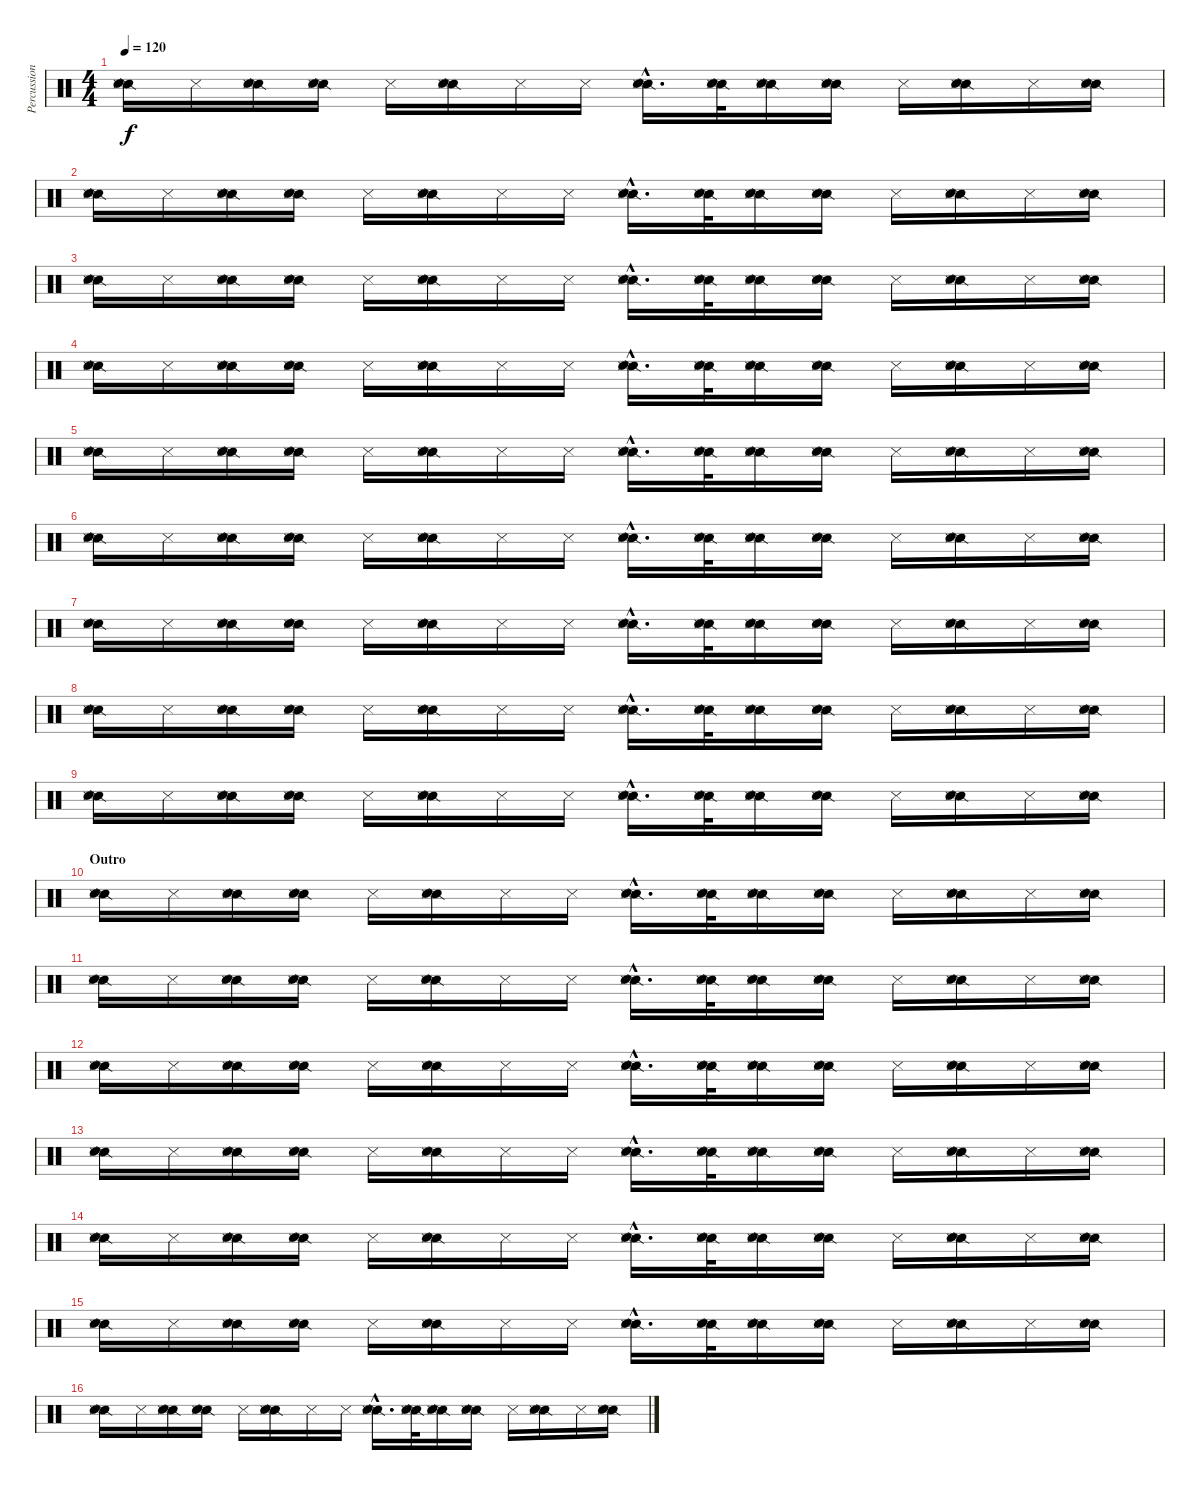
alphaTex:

\track ("Percussion" "Percussion") {instrument percussion}
\staff {score}
\articulation defaults
\ts (4 4)
\tempo 120
\clef neutral
\ks c
("Snare (side stick) 2" "Snare (hit) 2" "Metronome (hit)"{x}).16{dy f} "Metronome (hit)"{x}.16 ("Snare (side stick) 2" "Snare (hit) 2" "Metronome (hit)"{x}).16 ("Snare (side stick) 2" "Snare (hit) 2" "Metronome (hit)"{x}).16 "Metronome (hit)"{x}.16 ("Snare (side stick) 2" "Snare (hit) 2" "Metronome (hit)"{x}).16 "Metronome (hit)"{x}.16 "Metronome (hit)"{x}.16 ("Snare (side stick) 2"{hac} "Snare (hit) 2"{hac} "Metronome (hit)"{hac x}).16{d} ("Snare (side stick) 2" "Snare (hit) 2" "Metronome (hit)"{x}).32 ("Snare (side stick) 2" "Snare (hit) 2" "Metronome (hit)"{x}).16 ("Snare (side stick) 2" "Snare (hit) 2" "Metronome (hit)"{x}).16 "Metronome (hit)"{x}.16 ("Snare (side stick) 2" "Snare (hit) 2" "Metronome (hit)"{x}).16 "Metronome (hit)"{x}.16 ("Snare (side stick) 2" "Snare (hit) 2" "Metronome (hit)"{x}).16 |
("Snare (side stick) 2" "Snare (hit) 2" "Metronome (hit)"{x}).16 "Metronome (hit)"{x}.16 ("Snare (side stick) 2" "Snare (hit) 2" "Metronome (hit)"{x}).16 ("Snare (side stick) 2" "Snare (hit) 2" "Metronome (hit)"{x}).16 "Metronome (hit)"{x}.16 ("Snare (side stick) 2" "Snare (hit) 2" "Metronome (hit)"{x}).16 "Metronome (hit)"{x}.16 "Metronome (hit)"{x}.16 ("Snare (side stick) 2"{hac} "Snare (hit) 2"{hac} "Metronome (hit)"{hac x}).16{d} ("Snare (side stick) 2" "Snare (hit) 2" "Metronome (hit)"{x}).32 ("Snare (side stick) 2" "Snare (hit) 2" "Metronome (hit)"{x}).16 ("Snare (side stick) 2" "Snare (hit) 2" "Metronome (hit)"{x}).16 "Metronome (hit)"{x}.16 ("Snare (side stick) 2" "Snare (hit) 2" "Metronome (hit)"{x}).16 "Metronome (hit)"{x}.16 ("Snare (side stick) 2" "Snare (hit) 2" "Metronome (hit)"{x}).16 |
("Snare (side stick) 2" "Snare (hit) 2" "Metronome (hit)"{x}).16 "Metronome (hit)"{x}.16 ("Snare (side stick) 2" "Snare (hit) 2" "Metronome (hit)"{x}).16 ("Snare (side stick) 2" "Snare (hit) 2" "Metronome (hit)"{x}).16 "Metronome (hit)"{x}.16 ("Snare (side stick) 2" "Snare (hit) 2" "Metronome (hit)"{x}).16 "Metronome (hit)"{x}.16 "Metronome (hit)"{x}.16 ("Snare (side stick) 2"{hac} "Snare (hit) 2"{hac} "Metronome (hit)"{hac x}).16{d} ("Snare (side stick) 2" "Snare (hit) 2" "Metronome (hit)"{x}).32 ("Snare (side stick) 2" "Snare (hit) 2" "Metronome (hit)"{x}).16 ("Snare (side stick) 2" "Snare (hit) 2" "Metronome (hit)"{x}).16 "Metronome (hit)"{x}.16 ("Snare (side stick) 2" "Snare (hit) 2" "Metronome (hit)"{x}).16 "Metronome (hit)"{x}.16 ("Snare (side stick) 2" "Snare (hit) 2" "Metronome (hit)"{x}).16 |
("Snare (side stick) 2" "Snare (hit) 2" "Metronome (hit)"{x}).16 "Metronome (hit)"{x}.16 ("Snare (side stick) 2" "Snare (hit) 2" "Metronome (hit)"{x}).16 ("Snare (side stick) 2" "Snare (hit) 2" "Metronome (hit)"{x}).16 "Metronome (hit)"{x}.16 ("Snare (side stick) 2" "Snare (hit) 2" "Metronome (hit)"{x}).16 "Metronome (hit)"{x}.16 "Metronome (hit)"{x}.16 ("Snare (side stick) 2"{hac} "Snare (hit) 2"{hac} "Metronome (hit)"{hac x}).16{d} ("Snare (side stick) 2" "Snare (hit) 2" "Metronome (hit)"{x}).32 ("Snare (side stick) 2" "Snare (hit) 2" "Metronome (hit)"{x}).16 ("Snare (side stick) 2" "Snare (hit) 2" "Metronome (hit)"{x}).16 "Metronome (hit)"{x}.16 ("Snare (side stick) 2" "Snare (hit) 2" "Metronome (hit)"{x}).16 "Metronome (hit)"{x}.16 ("Snare (side stick) 2" "Snare (hit) 2" "Metronome (hit)"{x}).16 |
("Snare (side stick) 2" "Snare (hit) 2" "Metronome (hit)"{x}).16 "Metronome (hit)"{x}.16 ("Snare (side stick) 2" "Snare (hit) 2" "Metronome (hit)"{x}).16 ("Snare (side stick) 2" "Snare (hit) 2" "Metronome (hit)"{x}).16 "Metronome (hit)"{x}.16 ("Snare (side stick) 2" "Snare (hit) 2" "Metronome (hit)"{x}).16 "Metronome (hit)"{x}.16 "Metronome (hit)"{x}.16 ("Snare (side stick) 2"{hac} "Snare (hit) 2"{hac} "Metronome (hit)"{hac x}).16{d} ("Snare (side stick) 2" "Snare (hit) 2" "Metronome (hit)"{x}).32 ("Snare (side stick) 2" "Snare (hit) 2" "Metronome (hit)"{x}).16 ("Snare (side stick) 2" "Snare (hit) 2" "Metronome (hit)"{x}).16 "Metronome (hit)"{x}.16 ("Snare (side stick) 2" "Snare (hit) 2" "Metronome (hit)"{x}).16 "Metronome (hit)"{x}.16 ("Snare (side stick) 2" "Snare (hit) 2" "Metronome (hit)"{x}).16 |
("Snare (side stick) 2" "Snare (hit) 2" "Metronome (hit)"{x}).16 "Metronome (hit)"{x}.16 ("Snare (side stick) 2" "Snare (hit) 2" "Metronome (hit)"{x}).16 ("Snare (side stick) 2" "Snare (hit) 2" "Metronome (hit)"{x}).16 "Metronome (hit)"{x}.16 ("Snare (side stick) 2" "Snare (hit) 2" "Metronome (hit)"{x}).16 "Metronome (hit)"{x}.16 "Metronome (hit)"{x}.16 ("Snare (side stick) 2"{hac} "Snare (hit) 2"{hac} "Metronome (hit)"{hac x}).16{d} ("Snare (side stick) 2" "Snare (hit) 2" "Metronome (hit)"{x}).32 ("Snare (side stick) 2" "Snare (hit) 2" "Metronome (hit)"{x}).16 ("Snare (side stick) 2" "Snare (hit) 2" "Metronome (hit)"{x}).16 "Metronome (hit)"{x}.16 ("Snare (side stick) 2" "Snare (hit) 2" "Metronome (hit)"{x}).16 "Metronome (hit)"{x}.16 ("Snare (side stick) 2" "Snare (hit) 2" "Metronome (hit)"{x}).16 |
("Snare (side stick) 2" "Snare (hit) 2" "Metronome (hit)"{x}).16 "Metronome (hit)"{x}.16 ("Snare (side stick) 2" "Snare (hit) 2" "Metronome (hit)"{x}).16 ("Snare (side stick) 2" "Snare (hit) 2" "Metronome (hit)"{x}).16 "Metronome (hit)"{x}.16 ("Snare (side stick) 2" "Snare (hit) 2" "Metronome (hit)"{x}).16 "Metronome (hit)"{x}.16 "Metronome (hit)"{x}.16 ("Snare (side stick) 2"{hac} "Snare (hit) 2"{hac} "Metronome (hit)"{hac x}).16{d} ("Snare (side stick) 2" "Snare (hit) 2" "Metronome (hit)"{x}).32 ("Snare (side stick) 2" "Snare (hit) 2" "Metronome (hit)"{x}).16 ("Snare (side stick) 2" "Snare (hit) 2" "Metronome (hit)"{x}).16 "Metronome (hit)"{x}.16 ("Snare (side stick) 2" "Snare (hit) 2" "Metronome (hit)"{x}).16 "Metronome (hit)"{x}.16 ("Snare (side stick) 2" "Snare (hit) 2" "Metronome (hit)"{x}).16 |
("Snare (side stick) 2" "Snare (hit) 2" "Metronome (hit)"{x}).16 "Metronome (hit)"{x}.16 ("Snare (side stick) 2" "Snare (hit) 2" "Metronome (hit)"{x}).16 ("Snare (side stick) 2" "Snare (hit) 2" "Metronome (hit)"{x}).16 "Metronome (hit)"{x}.16 ("Snare (side stick) 2" "Snare (hit) 2" "Metronome (hit)"{x}).16 "Metronome (hit)"{x}.16 "Metronome (hit)"{x}.16 ("Snare (side stick) 2"{hac} "Snare (hit) 2"{hac} "Metronome (hit)"{hac x}).16{d} ("Snare (side stick) 2" "Snare (hit) 2" "Metronome (hit)"{x}).32 ("Snare (side stick) 2" "Snare (hit) 2" "Metronome (hit)"{x}).16 ("Snare (side stick) 2" "Snare (hit) 2" "Metronome (hit)"{x}).16 "Metronome (hit)"{x}.16 ("Snare (side stick) 2" "Snare (hit) 2" "Metronome (hit)"{x}).16 "Metronome (hit)"{x}.16 ("Snare (side stick) 2" "Snare (hit) 2" "Metronome (hit)"{x}).16 |
("Snare (side stick) 2" "Snare (hit) 2" "Metronome (hit)"{x}).16 "Metronome (hit)"{x}.16 ("Snare (side stick) 2" "Snare (hit) 2" "Metronome (hit)"{x}).16 ("Snare (side stick) 2" "Snare (hit) 2" "Metronome (hit)"{x}).16 "Metronome (hit)"{x}.16 ("Snare (side stick) 2" "Snare (hit) 2" "Metronome (hit)"{x}).16 "Metronome (hit)"{x}.16 "Metronome (hit)"{x}.16 ("Snare (side stick) 2"{hac} "Snare (hit) 2"{hac} "Metronome (hit)"{hac x}).16{d} ("Snare (side stick) 2" "Snare (hit) 2" "Metronome (hit)"{x}).32 ("Snare (side stick) 2" "Snare (hit) 2" "Metronome (hit)"{x}).16 ("Snare (side stick) 2" "Snare (hit) 2" "Metronome (hit)"{x}).16 "Metronome (hit)"{x}.16 ("Snare (side stick) 2" "Snare (hit) 2" "Metronome (hit)"{x}).16 "Metronome (hit)"{x}.16 ("Snare (side stick) 2" "Snare (hit) 2" "Metronome (hit)"{x}).16 |
\section ("" "Outro")
("Snare (side stick) 2" "Snare (hit) 2" "Metronome (hit)"{x}).16 "Metronome (hit)"{x}.16 ("Snare (side stick) 2" "Snare (hit) 2" "Metronome (hit)"{x}).16 ("Snare (side stick) 2" "Snare (hit) 2" "Metronome (hit)"{x}).16 "Metronome (hit)"{x}.16 ("Snare (side stick) 2" "Snare (hit) 2" "Metronome (hit)"{x}).16 "Metronome (hit)"{x}.16 "Metronome (hit)"{x}.16 ("Snare (side stick) 2"{hac} "Snare (hit) 2"{hac} "Metronome (hit)"{hac x}).16{d} ("Snare (side stick) 2" "Snare (hit) 2" "Metronome (hit)"{x}).32 ("Snare (side stick) 2" "Snare (hit) 2" "Metronome (hit)"{x}).16 ("Snare (side stick) 2" "Snare (hit) 2" "Metronome (hit)"{x}).16 "Metronome (hit)"{x}.16 ("Snare (side stick) 2" "Snare (hit) 2" "Metronome (hit)"{x}).16 "Metronome (hit)"{x}.16 ("Snare (side stick) 2" "Snare (hit) 2" "Metronome (hit)"{x}).16 |
("Snare (side stick) 2" "Snare (hit) 2" "Metronome (hit)"{x}).16 "Metronome (hit)"{x}.16 ("Snare (side stick) 2" "Snare (hit) 2" "Metronome (hit)"{x}).16 ("Snare (side stick) 2" "Snare (hit) 2" "Metronome (hit)"{x}).16 "Metronome (hit)"{x}.16 ("Snare (side stick) 2" "Snare (hit) 2" "Metronome (hit)"{x}).16 "Metronome (hit)"{x}.16 "Metronome (hit)"{x}.16 ("Snare (side stick) 2"{hac} "Snare (hit) 2"{hac} "Metronome (hit)"{hac x}).16{d} ("Snare (side stick) 2" "Snare (hit) 2" "Metronome (hit)"{x}).32 ("Snare (side stick) 2" "Snare (hit) 2" "Metronome (hit)"{x}).16 ("Snare (side stick) 2" "Snare (hit) 2" "Metronome (hit)"{x}).16 "Metronome (hit)"{x}.16 ("Snare (side stick) 2" "Snare (hit) 2" "Metronome (hit)"{x}).16 "Metronome (hit)"{x}.16 ("Snare (side stick) 2" "Snare (hit) 2" "Metronome (hit)"{x}).16 |
("Snare (side stick) 2" "Snare (hit) 2" "Metronome (hit)"{x}).16 "Metronome (hit)"{x}.16 ("Snare (side stick) 2" "Snare (hit) 2" "Metronome (hit)"{x}).16 ("Snare (side stick) 2" "Snare (hit) 2" "Metronome (hit)"{x}).16 "Metronome (hit)"{x}.16 ("Snare (side stick) 2" "Snare (hit) 2" "Metronome (hit)"{x}).16 "Metronome (hit)"{x}.16 "Metronome (hit)"{x}.16 ("Snare (side stick) 2"{hac} "Snare (hit) 2"{hac} "Metronome (hit)"{hac x}).16{d} ("Snare (side stick) 2" "Snare (hit) 2" "Metronome (hit)"{x}).32 ("Snare (side stick) 2" "Snare (hit) 2" "Metronome (hit)"{x}).16 ("Snare (side stick) 2" "Snare (hit) 2" "Metronome (hit)"{x}).16 "Metronome (hit)"{x}.16 ("Snare (side stick) 2" "Snare (hit) 2" "Metronome (hit)"{x}).16 "Metronome (hit)"{x}.16 ("Snare (side stick) 2" "Snare (hit) 2" "Metronome (hit)"{x}).16 |
("Snare (side stick) 2" "Snare (hit) 2" "Metronome (hit)"{x}).16 "Metronome (hit)"{x}.16 ("Snare (side stick) 2" "Snare (hit) 2" "Metronome (hit)"{x}).16 ("Snare (side stick) 2" "Snare (hit) 2" "Metronome (hit)"{x}).16 "Metronome (hit)"{x}.16 ("Snare (side stick) 2" "Snare (hit) 2" "Metronome (hit)"{x}).16 "Metronome (hit)"{x}.16 "Metronome (hit)"{x}.16 ("Snare (side stick) 2"{hac} "Snare (hit) 2"{hac} "Metronome (hit)"{hac x}).16{d} ("Snare (side stick) 2" "Snare (hit) 2" "Metronome (hit)"{x}).32 ("Snare (side stick) 2" "Snare (hit) 2" "Metronome (hit)"{x}).16 ("Snare (side stick) 2" "Snare (hit) 2" "Metronome (hit)"{x}).16 "Metronome (hit)"{x}.16 ("Snare (side stick) 2" "Snare (hit) 2" "Metronome (hit)"{x}).16 "Metronome (hit)"{x}.16 ("Snare (side stick) 2" "Snare (hit) 2" "Metronome (hit)"{x}).16 |
("Snare (side stick) 2" "Snare (hit) 2" "Metronome (hit)"{x}).16 "Metronome (hit)"{x}.16 ("Snare (side stick) 2" "Snare (hit) 2" "Metronome (hit)"{x}).16 ("Snare (side stick) 2" "Snare (hit) 2" "Metronome (hit)"{x}).16 "Metronome (hit)"{x}.16 ("Snare (side stick) 2" "Snare (hit) 2" "Metronome (hit)"{x}).16 "Metronome (hit)"{x}.16 "Metronome (hit)"{x}.16 ("Snare (side stick) 2"{hac} "Snare (hit) 2"{hac} "Metronome (hit)"{hac x}).16{d} ("Snare (side stick) 2" "Snare (hit) 2" "Metronome (hit)"{x}).32 ("Snare (side stick) 2" "Snare (hit) 2" "Metronome (hit)"{x}).16 ("Snare (side stick) 2" "Snare (hit) 2" "Metronome (hit)"{x}).16 "Metronome (hit)"{x}.16 ("Snare (side stick) 2" "Snare (hit) 2" "Metronome (hit)"{x}).16 "Metronome (hit)"{x}.16 ("Snare (side stick) 2" "Snare (hit) 2" "Metronome (hit)"{x}).16 |
("Snare (side stick) 2" "Snare (hit) 2" "Metronome (hit)"{x}).16 "Metronome (hit)"{x}.16 ("Snare (side stick) 2" "Snare (hit) 2" "Metronome (hit)"{x}).16 ("Snare (side stick) 2" "Snare (hit) 2" "Metronome (hit)"{x}).16 "Metronome (hit)"{x}.16 ("Snare (side stick) 2" "Snare (hit) 2" "Metronome (hit)"{x}).16 "Metronome (hit)"{x}.16 "Metronome (hit)"{x}.16 ("Snare (side stick) 2"{hac} "Snare (hit) 2"{hac} "Metronome (hit)"{hac x}).16{d} ("Snare (side stick) 2" "Snare (hit) 2" "Metronome (hit)"{x}).32 ("Snare (side stick) 2" "Snare (hit) 2" "Metronome (hit)"{x}).16 ("Snare (side stick) 2" "Snare (hit) 2" "Metronome (hit)"{x}).16 "Metronome (hit)"{x}.16 ("Snare (side stick) 2" "Snare (hit) 2" "Metronome (hit)"{x}).16 "Metronome (hit)"{x}.16 ("Snare (side stick) 2" "Snare (hit) 2" "Metronome (hit)"{x}).16 |
("Snare (side stick) 2" "Snare (hit) 2" "Metronome (hit)"{x}).16 "Metronome (hit)"{x}.16 ("Snare (side stick) 2" "Snare (hit) 2" "Metronome (hit)"{x}).16 ("Snare (side stick) 2" "Snare (hit) 2" "Metronome (hit)"{x}).16 "Metronome (hit)"{x}.16 ("Snare (side stick) 2" "Snare (hit) 2" "Metronome (hit)"{x}).16 "Metronome (hit)"{x}.16 "Metronome (hit)"{x}.16 ("Snare (side stick) 2"{hac} "Snare (hit) 2"{hac} "Metronome (hit)"{hac x}).16{d} ("Snare (side stick) 2" "Snare (hit) 2" "Metronome (hit)"{x}).32 ("Snare (side stick) 2" "Snare (hit) 2" "Metronome (hit)"{x}).16 ("Snare (side stick) 2" "Snare (hit) 2" "Metronome (hit)"{x}).16 "Metronome (hit)"{x}.16 ("Snare (side stick) 2" "Snare (hit) 2" "Metronome (hit)"{x}).16 "Metronome (hit)"{x}.16 ("Snare (side stick) 2" "Snare (hit) 2" "Metronome (hit)"{x}).16
